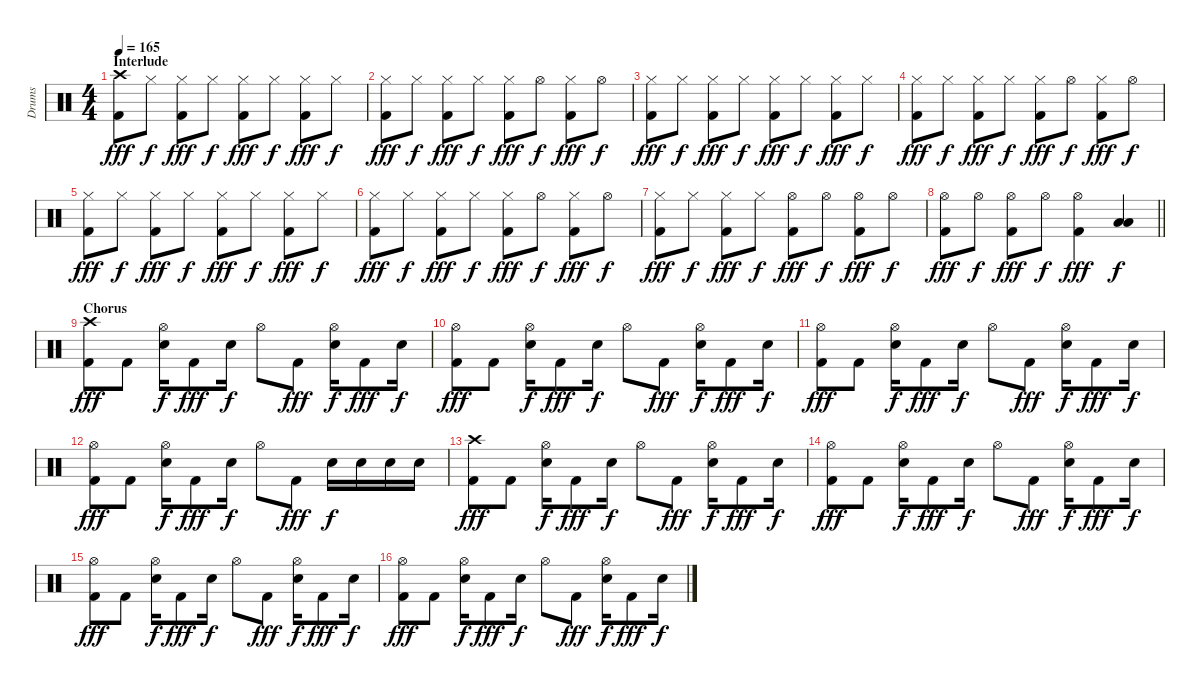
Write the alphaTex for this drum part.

\track ("Drums" "Drums") {instrument percussion}
\staff {score}
\articulation defaults
\ts (4 4)
\section ("" "Interlude")
\tempo 165
\clef neutral
\ks c
("Crash high (hit)" "Kick (hit) 2").8{dy fff} "Hi-Hat (closed)".8{dy f} ("Hi-Hat (closed)" "Kick (hit) 2").8{dy fff} "Hi-Hat (closed)".8{dy f} ("Hi-Hat (closed)" "Kick (hit) 2").8{dy fff} "Hi-Hat (closed)".8{dy f} ("Hi-Hat (closed)" "Kick (hit) 2").8{dy fff} "Hi-Hat (closed)".8{dy f} |
("Hi-Hat (closed)" "Kick (hit) 2").8{dy fff} "Hi-Hat (closed)".8{dy f} ("Hi-Hat (closed)" "Kick (hit) 2").8{dy fff} "Hi-Hat (closed)".8{dy f} ("Hi-Hat (closed)" "Kick (hit) 2").8{dy fff} "Hi-Hat (open)".8{dy f} ("Hi-Hat (closed)" "Kick (hit) 2").8{dy fff} "Hi-Hat (open)".8{dy f} |
("Hi-Hat (closed)" "Kick (hit) 2").8{dy fff} "Hi-Hat (closed)".8{dy f} ("Hi-Hat (closed)" "Kick (hit) 2").8{dy fff} "Hi-Hat (closed)".8{dy f} ("Hi-Hat (closed)" "Kick (hit) 2").8{dy fff} "Hi-Hat (closed)".8{dy f} ("Hi-Hat (closed)" "Kick (hit) 2").8{dy fff} "Hi-Hat (closed)".8{dy f} |
("Hi-Hat (closed)" "Kick (hit) 2").8{dy fff} "Hi-Hat (closed)".8{dy f} ("Hi-Hat (closed)" "Kick (hit) 2").8{dy fff} "Hi-Hat (closed)".8{dy f} ("Hi-Hat (closed)" "Kick (hit) 2").8{dy fff} "Hi-Hat (open)".8{dy f} ("Hi-Hat (closed)" "Kick (hit) 2").8{dy fff} "Hi-Hat (open)".8{dy f} |
("Hi-Hat (closed)" "Kick (hit) 2").8{dy fff} "Hi-Hat (closed)".8{dy f} ("Hi-Hat (closed)" "Kick (hit) 2").8{dy fff} "Hi-Hat (closed)".8{dy f} ("Hi-Hat (closed)" "Kick (hit) 2").8{dy fff} "Hi-Hat (closed)".8{dy f} ("Hi-Hat (closed)" "Kick (hit) 2").8{dy fff} "Hi-Hat (closed)".8{dy f} |
("Hi-Hat (closed)" "Kick (hit) 2").8{dy fff} "Hi-Hat (closed)".8{dy f} ("Hi-Hat (closed)" "Kick (hit) 2").8{dy fff} "Hi-Hat (closed)".8{dy f} ("Hi-Hat (closed)" "Kick (hit) 2").8{dy fff} "Hi-Hat (open)".8{dy f} ("Hi-Hat (closed)" "Kick (hit) 2").8{dy fff} "Hi-Hat (open)".8{dy f} |
("Hi-Hat (closed)" "Kick (hit) 2").8{dy fff} "Hi-Hat (closed)".8{dy f} ("Hi-Hat (closed)" "Kick (hit) 2").8{dy fff} "Hi-Hat (closed)".8{dy f} ("Hi-Hat (open)" "Kick (hit) 2").8{dy fff} "Hi-Hat (open)".8{dy f} ("Hi-Hat (open)" "Kick (hit) 2").8{dy fff} "Hi-Hat (open)".8{dy f} |
\barLineRight lightlight
("Hi-Hat (open)" "Kick (hit) 2").8{dy fff} "Hi-Hat (open)".8{dy f} ("Hi-Hat (open)" "Kick (hit) 2").8{dy fff} "Hi-Hat (open)".8{dy f} ("Hi-Hat (open)" "Kick (hit) 2").4{dy fff} ("Low Tom (hit)" "Low Floor Tom (hit)").4{dy f} |
\section ("" "Chorus")
("Crash high (hit)" "Kick (hit) 2").8{dy fff} "Kick (hit) 2".8 ("Hi-Hat (open)" "Snare (hit) 2").16{dy f} "Kick (hit) 2".8{dy fff} "Snare (hit) 2".16{dy f} "Hi-Hat (open)".8 "Kick (hit) 2".8{dy fff} ("Hi-Hat (open)" "Snare (hit) 2").16{dy f} "Kick (hit) 2".8{dy fff} "Snare (hit) 2".16{dy f} |
("Hi-Hat (open)" "Kick (hit) 2").8{dy fff} "Kick (hit) 2".8 ("Hi-Hat (open)" "Snare (hit) 2").16{dy f} "Kick (hit) 2".8{dy fff} "Snare (hit) 2".16{dy f} "Hi-Hat (open)".8 "Kick (hit) 2".8{dy fff} ("Hi-Hat (open)" "Snare (hit) 2").16{dy f} "Kick (hit) 2".8{dy fff} "Snare (hit) 2".16{dy f} |
("Hi-Hat (open)" "Kick (hit) 2").8{dy fff} "Kick (hit) 2".8 ("Hi-Hat (open)" "Snare (hit) 2").16{dy f} "Kick (hit) 2".8{dy fff} "Snare (hit) 2".16{dy f} "Hi-Hat (open)".8 "Kick (hit) 2".8{dy fff} ("Hi-Hat (open)" "Snare (hit) 2").16{dy f} "Kick (hit) 2".8{dy fff} "Snare (hit) 2".16{dy f} |
("Hi-Hat (open)" "Kick (hit) 2").8{dy fff} "Kick (hit) 2".8 ("Hi-Hat (open)" "Snare (hit) 2").16{dy f} "Kick (hit) 2".8{dy fff} "Snare (hit) 2".16{dy f} "Hi-Hat (open)".8 "Kick (hit) 2".8{dy fff} "Snare (hit) 2".16{dy f} "Snare (hit) 2".16 "Snare (hit) 2".16 "Snare (hit) 2".16 |
("Crash high (hit)" "Kick (hit) 2").8{dy fff} "Kick (hit) 2".8 ("Hi-Hat (open)" "Snare (hit) 2").16{dy f} "Kick (hit) 2".8{dy fff} "Snare (hit) 2".16{dy f} "Hi-Hat (open)".8 "Kick (hit) 2".8{dy fff} ("Hi-Hat (open)" "Snare (hit) 2").16{dy f} "Kick (hit) 2".8{dy fff} "Snare (hit) 2".16{dy f} |
("Hi-Hat (open)" "Kick (hit) 2").8{dy fff} "Kick (hit) 2".8 ("Hi-Hat (open)" "Snare (hit) 2").16{dy f} "Kick (hit) 2".8{dy fff} "Snare (hit) 2".16{dy f} "Hi-Hat (open)".8 "Kick (hit) 2".8{dy fff} ("Hi-Hat (open)" "Snare (hit) 2").16{dy f} "Kick (hit) 2".8{dy fff} "Snare (hit) 2".16{dy f} |
("Hi-Hat (open)" "Kick (hit) 2").8{dy fff} "Kick (hit) 2".8 ("Hi-Hat (open)" "Snare (hit) 2").16{dy f} "Kick (hit) 2".8{dy fff} "Snare (hit) 2".16{dy f} "Hi-Hat (open)".8 "Kick (hit) 2".8{dy fff} ("Hi-Hat (open)" "Snare (hit) 2").16{dy f} "Kick (hit) 2".8{dy fff} "Snare (hit) 2".16{dy f} |
("Hi-Hat (open)" "Kick (hit) 2").8{dy fff} "Kick (hit) 2".8 ("Hi-Hat (open)" "Snare (hit) 2").16{dy f} "Kick (hit) 2".8{dy fff} "Snare (hit) 2".16{dy f} "Hi-Hat (open)".8 "Kick (hit) 2".8{dy fff} ("Hi-Hat (open)" "Snare (hit) 2").16{dy f} "Kick (hit) 2".8{dy fff} "Snare (hit) 2".16{dy f}
